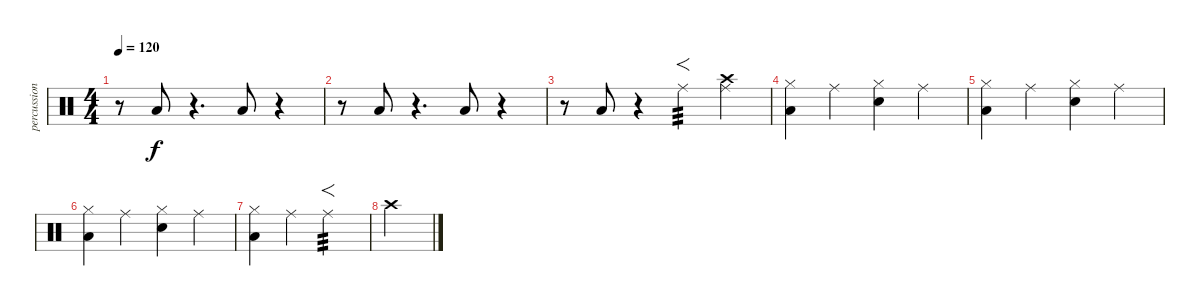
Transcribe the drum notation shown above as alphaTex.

\track ("percussion" "percussion") {instrument percussion}
\staff {score}
\articulation defaults
\ts (4 4)
\tempo 120
\clef neutral
\ks c
r.8{dy f} "Low Floor Tom (hit)".8 r.4{d} "Low Floor Tom (hit)".8 r.4 |
r.8 "Low Floor Tom (hit)".8 r.4{d} "Low Floor Tom (hit)".8 r.4 |
r.8 "Low Floor Tom (hit)".8 r.4 "Ride (middle)".4{f tp 3} ("Crash high (hit)" "Ride (middle)").4 |
("Hi-Hat (closed)" "Low Floor Tom (hit)").4 "Ride (middle)".4 ("Hi-Hat (closed)" "Electric Snare (hit)").4 "Ride (middle)".4 |
("Hi-Hat (closed)" "Low Floor Tom (hit)").4 "Ride (middle)".4 ("Hi-Hat (closed)" "Electric Snare (hit)").4 "Ride (middle)".4 |
("Hi-Hat (closed)" "Low Floor Tom (hit)").4 "Ride (middle)".4 ("Hi-Hat (closed)" "Electric Snare (hit)").4 "Ride (middle)".4 |
("Hi-Hat (closed)" "Low Floor Tom (hit)").4 "Ride (middle)".4 "Ride (middle)".2{f tp 3} |
"Crash high (hit)".2
